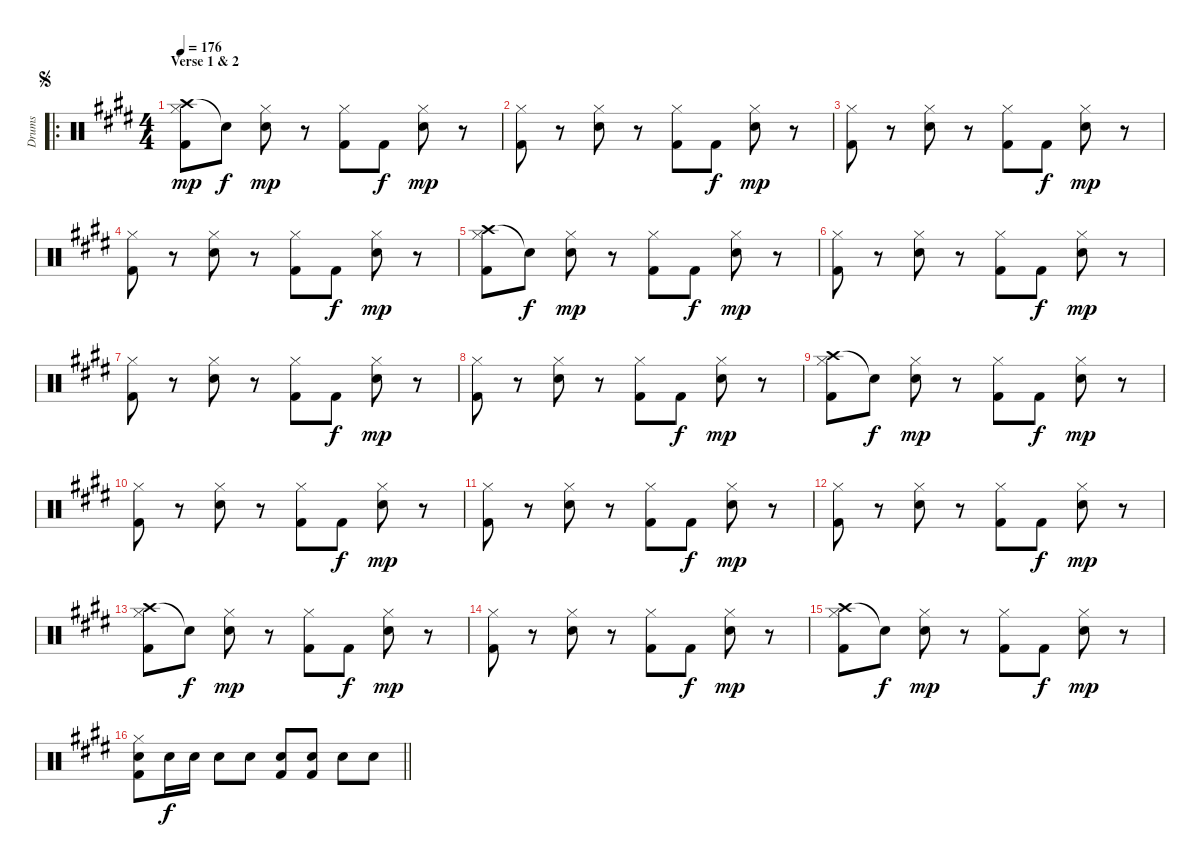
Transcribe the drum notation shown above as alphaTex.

\track ("Drums" "Drums") {instrument percussion}
\staff {score}
\articulation defaults
\ro
\ts (4 4)
\section ("" "Verse 1 & 2")
\jump segno
\tempo 176
\clef neutral
\ks e
("Crash high (hit)" "Hi-Hat (closed)" "Kick (hit) 2").8{dy mp} "Snare (hit)"{t}.8{dy f} ("Hi-Hat (closed)" "Snare (hit) 2").8{dy mp} r.8 ("Hi-Hat (closed)" "Kick (hit) 2").8 "Kick (hit) 2".8{dy f} ("Hi-Hat (closed)" "Snare (hit) 2").8{dy mp} r.8 |
("Hi-Hat (closed)" "Kick (hit) 2").8 r.8 ("Hi-Hat (closed)" "Snare (hit) 2").8 r.8 ("Hi-Hat (closed)" "Kick (hit) 2").8 "Kick (hit) 2".8{dy f} ("Hi-Hat (closed)" "Snare (hit) 2").8{dy mp} r.8 |
("Hi-Hat (closed)" "Kick (hit) 2").8 r.8 ("Hi-Hat (closed)" "Snare (hit) 2").8 r.8 ("Hi-Hat (closed)" "Kick (hit) 2").8 "Kick (hit) 2".8{dy f} ("Hi-Hat (closed)" "Snare (hit) 2").8{dy mp} r.8 |
("Hi-Hat (closed)" "Kick (hit) 2").8 r.8 ("Hi-Hat (closed)" "Snare (hit) 2").8 r.8 ("Hi-Hat (closed)" "Kick (hit) 2").8 "Kick (hit) 2".8{dy f} ("Hi-Hat (closed)" "Snare (hit) 2").8{dy mp} r.8 |
("Crash high (hit)" "Hi-Hat (closed)" "Kick (hit) 2").8 "Snare (hit)"{t}.8{dy f} ("Hi-Hat (closed)" "Snare (hit) 2").8{dy mp} r.8 ("Hi-Hat (closed)" "Kick (hit) 2").8 "Kick (hit) 2".8{dy f} ("Hi-Hat (closed)" "Snare (hit) 2").8{dy mp} r.8 |
("Hi-Hat (closed)" "Kick (hit) 2").8 r.8 ("Hi-Hat (closed)" "Snare (hit) 2").8 r.8 ("Hi-Hat (closed)" "Kick (hit) 2").8 "Kick (hit) 2".8{dy f} ("Hi-Hat (closed)" "Snare (hit) 2").8{dy mp} r.8 |
("Hi-Hat (closed)" "Kick (hit) 2").8 r.8 ("Hi-Hat (closed)" "Snare (hit) 2").8 r.8 ("Hi-Hat (closed)" "Kick (hit) 2").8 "Kick (hit) 2".8{dy f} ("Hi-Hat (closed)" "Snare (hit) 2").8{dy mp} r.8 |
("Hi-Hat (closed)" "Kick (hit) 2").8 r.8 ("Hi-Hat (closed)" "Snare (hit) 2").8 r.8 ("Hi-Hat (closed)" "Kick (hit) 2").8 "Kick (hit) 2".8{dy f} ("Hi-Hat (closed)" "Snare (hit) 2").8{dy mp} r.8 |
("Crash high (hit)" "Hi-Hat (closed)" "Kick (hit) 2").8 "Snare (hit)"{t}.8{dy f} ("Hi-Hat (closed)" "Snare (hit) 2").8{dy mp} r.8 ("Hi-Hat (closed)" "Kick (hit) 2").8 "Kick (hit) 2".8{dy f} ("Hi-Hat (closed)" "Snare (hit) 2").8{dy mp} r.8 |
("Hi-Hat (closed)" "Kick (hit) 2").8 r.8 ("Hi-Hat (closed)" "Snare (hit) 2").8 r.8 ("Hi-Hat (closed)" "Kick (hit) 2").8 "Kick (hit) 2".8{dy f} ("Hi-Hat (closed)" "Snare (hit) 2").8{dy mp} r.8 |
("Hi-Hat (closed)" "Kick (hit) 2").8 r.8 ("Hi-Hat (closed)" "Snare (hit) 2").8 r.8 ("Hi-Hat (closed)" "Kick (hit) 2").8 "Kick (hit) 2".8{dy f} ("Hi-Hat (closed)" "Snare (hit) 2").8{dy mp} r.8 |
("Hi-Hat (closed)" "Kick (hit) 2").8 r.8 ("Hi-Hat (closed)" "Snare (hit) 2").8 r.8 ("Hi-Hat (closed)" "Kick (hit) 2").8 "Kick (hit) 2".8{dy f} ("Hi-Hat (closed)" "Snare (hit) 2").8{dy mp} r.8 |
("Crash high (hit)" "Hi-Hat (closed)" "Kick (hit) 2").8 "Snare (hit)"{t}.8{dy f} ("Hi-Hat (closed)" "Snare (hit) 2").8{dy mp} r.8 ("Hi-Hat (closed)" "Kick (hit) 2").8 "Kick (hit) 2".8{dy f} ("Hi-Hat (closed)" "Snare (hit) 2").8{dy mp} r.8 |
("Hi-Hat (closed)" "Kick (hit) 2").8 r.8 ("Hi-Hat (closed)" "Snare (hit) 2").8 r.8 ("Hi-Hat (closed)" "Kick (hit) 2").8 "Kick (hit) 2".8{dy f} ("Hi-Hat (closed)" "Snare (hit) 2").8{dy mp} r.8 |
("Crash high (hit)" "Hi-Hat (closed)" "Kick (hit) 2").8 "Snare (hit)"{t}.8{dy f} ("Hi-Hat (closed)" "Snare (hit) 2").8{dy mp} r.8 ("Hi-Hat (closed)" "Kick (hit) 2").8 "Kick (hit) 2".8{dy f} ("Hi-Hat (closed)" "Snare (hit) 2").8{dy mp} r.8 |
\barLineRight lightlight
("Hi-Hat (closed)" "Snare (hit) 2" "Kick (hit) 2").8 "Snare (hit) 2".16{dy f} "Snare (hit) 2".16 "Snare (hit) 2".8 "Snare (hit) 2".8 ("Snare (hit) 2" "Kick (hit) 2").8 ("Snare (hit) 2" "Kick (hit) 2").8 "Snare (hit) 2".8 "Snare (hit) 2".8
